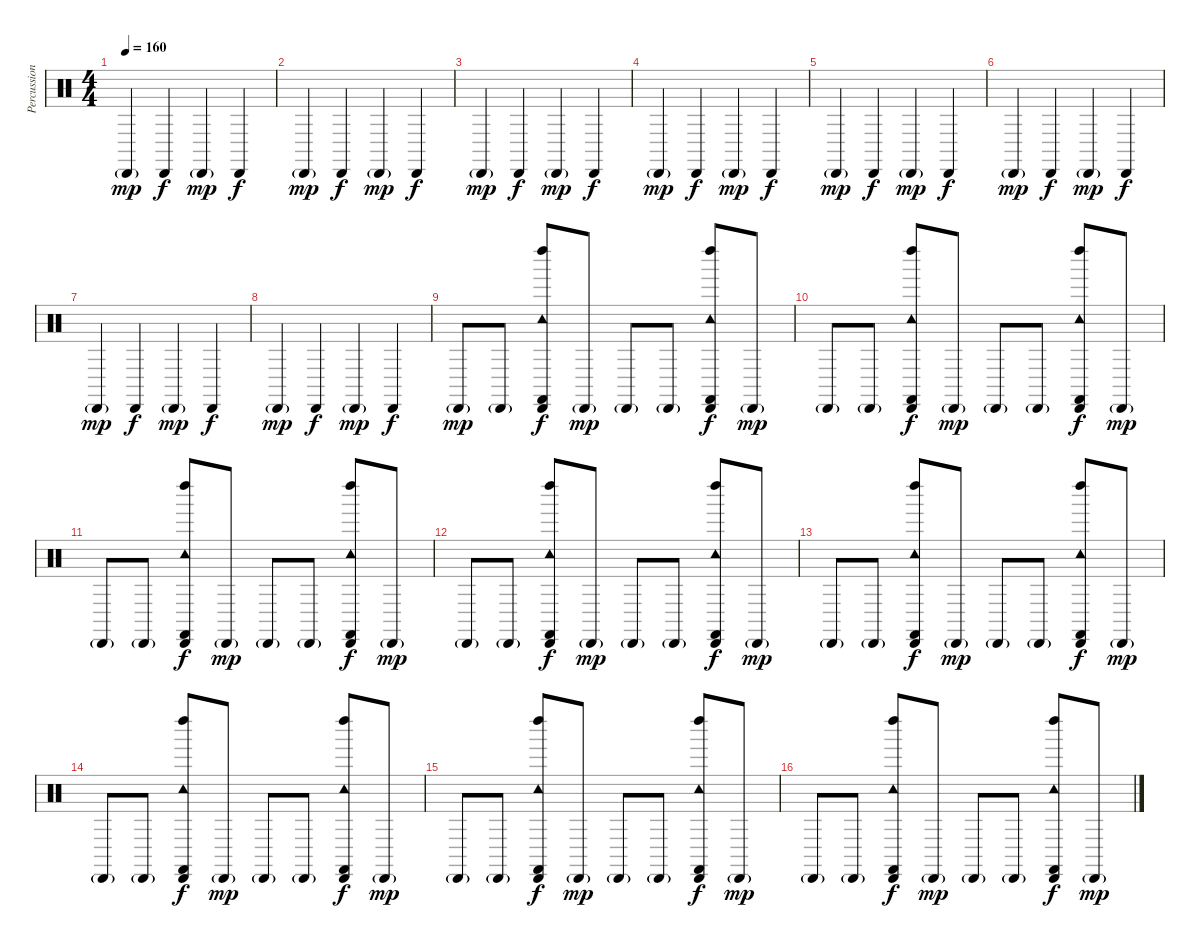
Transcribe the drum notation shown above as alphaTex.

\track ("Percussion" "Percussion") {instrument percussion}
\staff {score}
\articulation defaults
\ts (4 4)
\tempo 160
\clef neutral
\ks c "Cabasa (hit)"{g}.4{dy mp} "Cabasa (hit)".4{dy f} "Cabasa (hit)"{g}.4{dy mp} "Cabasa (hit)".4{dy f}
|
"Cabasa (hit)"{g}.4{dy mp} "Cabasa (hit)".4{dy f} "Cabasa (hit)"{g}.4{dy mp} "Cabasa (hit)".4{dy f} |
"Cabasa (hit)"{g}.4{dy mp} "Cabasa (hit)".4{dy f} "Cabasa (hit)"{g}.4{dy mp} "Cabasa (hit)".4{dy f} |
"Cabasa (hit)"{g}.4{dy mp} "Cabasa (hit)".4{dy f} "Cabasa (hit)"{g}.4{dy mp} "Cabasa (hit)".4{dy f} |
"Cabasa (hit)"{g}.4{dy mp} "Cabasa (hit)".4{dy f} "Cabasa (hit)"{g}.4{dy mp} "Cabasa (hit)".4{dy f} |
"Cabasa (hit)"{g}.4{dy mp} "Cabasa (hit)".4{dy f} "Cabasa (hit)"{g}.4{dy mp} "Cabasa (hit)".4{dy f} |
"Cabasa (hit)"{g}.4{dy mp} "Cabasa (hit)".4{dy f} "Cabasa (hit)"{g}.4{dy mp} "Cabasa (hit)".4{dy f} |
"Cabasa (hit)"{g}.4{dy mp} "Cabasa (hit)".4{dy f} "Cabasa (hit)"{g}.4{dy mp} "Cabasa (hit)".4{dy f} |
"Cabasa (hit)"{g}.8{dy mp} "Cabasa (hit)"{g}.8 ("Cabasa (hit)" "Tambourine (hit)" "Left Maraca (hit)" "Castanets (hit)").8{dy f} "Cabasa (hit)"{g}.8{dy mp} "Cabasa (hit)"{g}.8 "Cabasa (hit)"{g}.8 ("Cabasa (hit)" "Tambourine (hit)" "Left Maraca (hit)" "Castanets (hit)").8{dy f} "Cabasa (hit)"{g}.8{dy mp} |
"Cabasa (hit)"{g}.8 "Cabasa (hit)"{g}.8 ("Cabasa (hit)" "Tambourine (hit)" "Left Maraca (hit)" "Castanets (hit)").8{dy f} "Cabasa (hit)"{g}.8{dy mp} "Cabasa (hit)"{g}.8 "Cabasa (hit)"{g}.8 ("Cabasa (hit)" "Tambourine (hit)" "Left Maraca (hit)" "Castanets (hit)").8{dy f} "Cabasa (hit)"{g}.8{dy mp} |
"Cabasa (hit)"{g}.8 "Cabasa (hit)"{g}.8 ("Cabasa (hit)" "Tambourine (hit)" "Left Maraca (hit)" "Castanets (hit)").8{dy f} "Cabasa (hit)"{g}.8{dy mp} "Cabasa (hit)"{g}.8 "Cabasa (hit)"{g}.8 ("Cabasa (hit)" "Tambourine (hit)" "Left Maraca (hit)" "Castanets (hit)").8{dy f} "Cabasa (hit)"{g}.8{dy mp} |
"Cabasa (hit)"{g}.8 "Cabasa (hit)"{g}.8 ("Cabasa (hit)" "Tambourine (hit)" "Left Maraca (hit)" "Castanets (hit)").8{dy f} "Cabasa (hit)"{g}.8{dy mp} "Cabasa (hit)"{g}.8 "Cabasa (hit)"{g}.8 ("Cabasa (hit)" "Tambourine (hit)" "Left Maraca (hit)" "Castanets (hit)").8{dy f} "Cabasa (hit)"{g}.8{dy mp} |
"Cabasa (hit)"{g}.8 "Cabasa (hit)"{g}.8 ("Cabasa (hit)" "Tambourine (hit)" "Left Maraca (hit)" "Castanets (hit)").8{dy f} "Cabasa (hit)"{g}.8{dy mp} "Cabasa (hit)"{g}.8 "Cabasa (hit)"{g}.8 ("Cabasa (hit)" "Tambourine (hit)" "Left Maraca (hit)" "Castanets (hit)").8{dy f} "Cabasa (hit)"{g}.8{dy mp} |
"Cabasa (hit)"{g}.8 "Cabasa (hit)"{g}.8 ("Cabasa (hit)" "Tambourine (hit)" "Left Maraca (hit)" "Castanets (hit)").8{dy f} "Cabasa (hit)"{g}.8{dy mp} "Cabasa (hit)"{g}.8 "Cabasa (hit)"{g}.8 ("Cabasa (hit)" "Tambourine (hit)" "Left Maraca (hit)" "Castanets (hit)").8{dy f} "Cabasa (hit)"{g}.8{dy mp} |
"Cabasa (hit)"{g}.8 "Cabasa (hit)"{g}.8 ("Cabasa (hit)" "Tambourine (hit)" "Left Maraca (hit)" "Castanets (hit)").8{dy f} "Cabasa (hit)"{g}.8{dy mp} "Cabasa (hit)"{g}.8 "Cabasa (hit)"{g}.8 ("Cabasa (hit)" "Tambourine (hit)" "Left Maraca (hit)" "Castanets (hit)").8{dy f} "Cabasa (hit)"{g}.8{dy mp} |
"Cabasa (hit)"{g}.8 "Cabasa (hit)"{g}.8 ("Cabasa (hit)" "Tambourine (hit)" "Left Maraca (hit)" "Castanets (hit)").8{dy f} "Cabasa (hit)"{g}.8{dy mp} "Cabasa (hit)"{g}.8 "Cabasa (hit)"{g}.8 ("Cabasa (hit)" "Tambourine (hit)" "Left Maraca (hit)" "Castanets (hit)").8{dy f} "Cabasa (hit)"{g}.8{dy mp}
